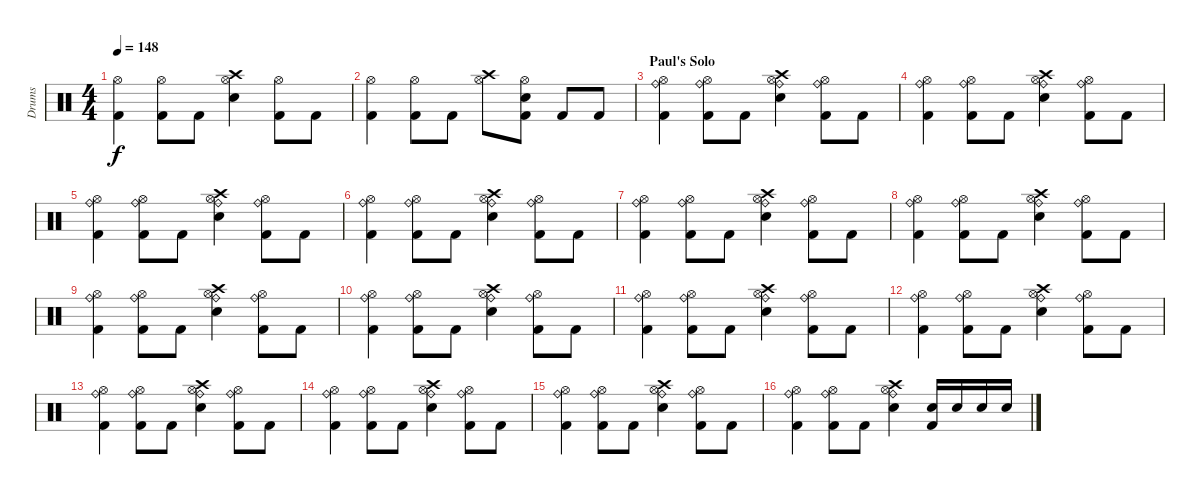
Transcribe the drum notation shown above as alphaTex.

\track ("Drums" "Drums") {instrument percussion}
\staff {score}
\articulation defaults
\ts (4 4)
\tempo 148
\clef neutral
\ks c
("Hi-Hat (open)" "Kick (hit) 2").4{dy f} ("Hi-Hat (open)" "Kick (hit) 2").8 "Kick (hit) 2".8 ("Crash high (hit)" "Hi-Hat (open)" "Snare (hit) 2").4 ("Hi-Hat (open)" "Kick (hit) 2").8 "Kick (hit) 2".8 |
("Hi-Hat (open)" "Kick (hit) 2").4 ("Hi-Hat (open)" "Kick (hit) 2").8 "Kick (hit) 2".8 ("Crash high (hit)" "Hi-Hat (open)").8 ("Hi-Hat (open)" "Snare (hit) 2" "Kick (hit) 2").8 "Kick (hit) 2".8 "Kick (hit) 2".8 |
\section ("" "Paul's Solo")
("Ride (bell)" "Hi-Hat (open)" "Kick (hit) 2").4 ("Ride (bell)" "Hi-Hat (open)" "Kick (hit) 2").8 "Kick (hit) 2".8 ("Ride (bell)" "Crash high (hit)" "Hi-Hat (open)" "Snare (hit) 2").4 ("Ride (bell)" "Hi-Hat (open)" "Kick (hit) 2").8 "Kick (hit) 2".8 |
("Ride (bell)" "Hi-Hat (open)" "Kick (hit) 2").4 ("Ride (bell)" "Hi-Hat (open)" "Kick (hit) 2").8 "Kick (hit) 2".8 ("Ride (bell)" "Crash high (hit)" "Hi-Hat (open)" "Snare (hit) 2").4 ("Ride (bell)" "Hi-Hat (open)" "Kick (hit) 2").8 "Kick (hit) 2".8 |
("Ride (bell)" "Hi-Hat (open)" "Kick (hit) 2").4 ("Ride (bell)" "Hi-Hat (open)" "Kick (hit) 2").8 "Kick (hit) 2".8 ("Ride (bell)" "Crash high (hit)" "Hi-Hat (open)" "Snare (hit) 2").4 ("Ride (bell)" "Hi-Hat (open)" "Kick (hit) 2").8 "Kick (hit) 2".8 |
("Ride (bell)" "Hi-Hat (open)" "Kick (hit) 2").4 ("Ride (bell)" "Hi-Hat (open)" "Kick (hit) 2").8 "Kick (hit) 2".8 ("Ride (bell)" "Crash high (hit)" "Hi-Hat (open)" "Snare (hit) 2").4 ("Ride (bell)" "Hi-Hat (open)" "Kick (hit) 2").8 "Kick (hit) 2".8 |
("Ride (bell)" "Hi-Hat (open)" "Kick (hit) 2").4 ("Ride (bell)" "Hi-Hat (open)" "Kick (hit) 2").8 "Kick (hit) 2".8 ("Ride (bell)" "Crash high (hit)" "Hi-Hat (open)" "Snare (hit) 2").4 ("Ride (bell)" "Hi-Hat (open)" "Kick (hit) 2").8 "Kick (hit) 2".8 |
("Ride (bell)" "Hi-Hat (open)" "Kick (hit) 2").4 ("Ride (bell)" "Hi-Hat (open)" "Kick (hit) 2").8 "Kick (hit) 2".8 ("Ride (bell)" "Crash high (hit)" "Hi-Hat (open)" "Snare (hit) 2").4 ("Ride (bell)" "Hi-Hat (open)" "Kick (hit) 2").8 "Kick (hit) 2".8 |
("Ride (bell)" "Hi-Hat (open)" "Kick (hit) 2").4 ("Ride (bell)" "Hi-Hat (open)" "Kick (hit) 2").8 "Kick (hit) 2".8 ("Ride (bell)" "Crash high (hit)" "Hi-Hat (open)" "Snare (hit) 2").4 ("Ride (bell)" "Hi-Hat (open)" "Kick (hit) 2").8 "Kick (hit) 2".8 |
("Ride (bell)" "Hi-Hat (open)" "Kick (hit) 2").4 ("Ride (bell)" "Hi-Hat (open)" "Kick (hit) 2").8 "Kick (hit) 2".8 ("Ride (bell)" "Crash high (hit)" "Hi-Hat (open)" "Snare (hit) 2").4 ("Ride (bell)" "Hi-Hat (open)" "Kick (hit) 2").8 "Kick (hit) 2".8 |
("Ride (bell)" "Hi-Hat (open)" "Kick (hit) 2").4 ("Ride (bell)" "Hi-Hat (open)" "Kick (hit) 2").8 "Kick (hit) 2".8 ("Ride (bell)" "Crash high (hit)" "Hi-Hat (open)" "Snare (hit) 2").4 ("Ride (bell)" "Hi-Hat (open)" "Kick (hit) 2").8 "Kick (hit) 2".8 |
("Ride (bell)" "Hi-Hat (open)" "Kick (hit) 2").4 ("Ride (bell)" "Hi-Hat (open)" "Kick (hit) 2").8 "Kick (hit) 2".8 ("Ride (bell)" "Crash high (hit)" "Hi-Hat (open)" "Snare (hit) 2").4 ("Ride (bell)" "Hi-Hat (open)" "Kick (hit) 2").8 "Kick (hit) 2".8 |
("Ride (bell)" "Hi-Hat (open)" "Kick (hit) 2").4 ("Ride (bell)" "Hi-Hat (open)" "Kick (hit) 2").8 "Kick (hit) 2".8 ("Ride (bell)" "Crash high (hit)" "Hi-Hat (open)" "Snare (hit) 2").4 ("Ride (bell)" "Hi-Hat (open)" "Kick (hit) 2").8 "Kick (hit) 2".8 |
("Ride (bell)" "Hi-Hat (open)" "Kick (hit) 2").4 ("Ride (bell)" "Hi-Hat (open)" "Kick (hit) 2").8 "Kick (hit) 2".8 ("Ride (bell)" "Crash high (hit)" "Hi-Hat (open)" "Snare (hit) 2").4 ("Ride (bell)" "Hi-Hat (open)" "Kick (hit) 2").8 "Kick (hit) 2".8 |
("Ride (bell)" "Hi-Hat (open)" "Kick (hit) 2").4 ("Ride (bell)" "Hi-Hat (open)" "Kick (hit) 2").8 "Kick (hit) 2".8 ("Ride (bell)" "Crash high (hit)" "Hi-Hat (open)" "Snare (hit) 2").4 ("Ride (bell)" "Hi-Hat (open)" "Kick (hit) 2").8 "Kick (hit) 2".8 |
("Ride (bell)" "Hi-Hat (open)" "Kick (hit) 2").4 ("Ride (bell)" "Hi-Hat (open)" "Kick (hit) 2").8 "Kick (hit) 2".8 ("Ride (bell)" "Crash high (hit)" "Hi-Hat (open)" "Snare (hit) 2").4 ("Snare (hit) 2" "Kick (hit) 2").16 "Snare (hit) 2".16 "Snare (hit) 2".16 "Snare (hit) 2".16
